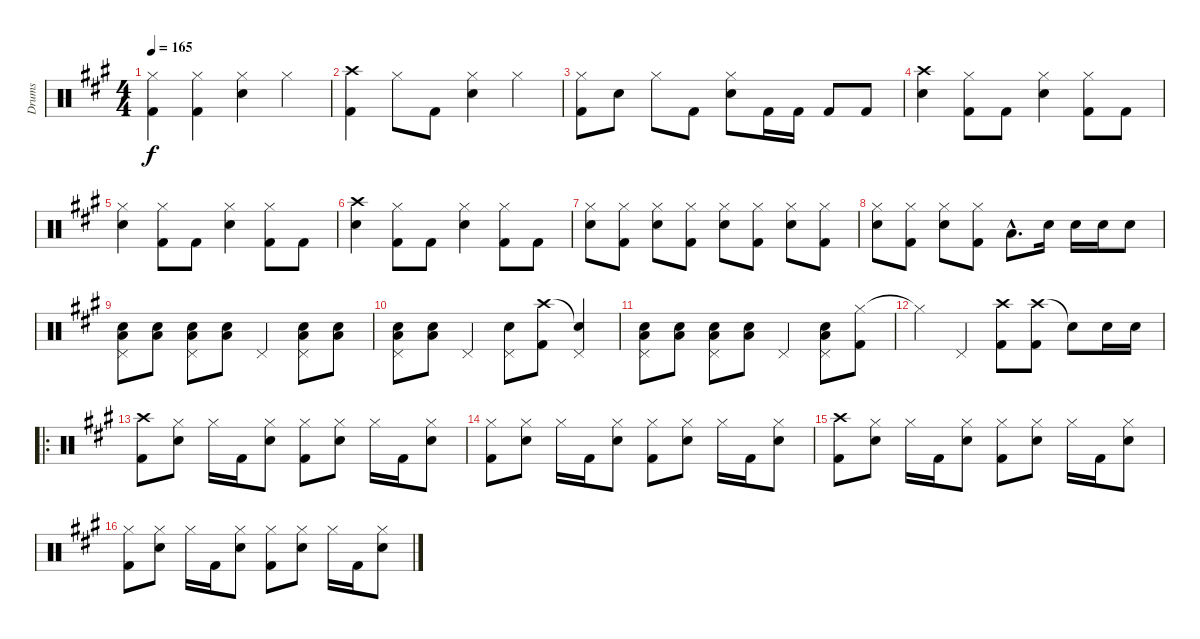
\track ("Drums" "Drums") {instrument percussion}
\staff {score}
\articulation defaults
\ts (4 4)
\tempo 165
\clef neutral
\ks a
("Hi-Hat (closed)" "Kick (hit) 2").4{dy f} ("Hi-Hat (closed)" "Kick (hit) 2").4 ("Hi-Hat (closed)" "Snare (hit) 2").4 "Hi-Hat (closed)".4 |
("Crash high (hit)" "Kick (hit) 2").4 "Hi-Hat (closed)".8 "Kick (hit) 2".8 ("Hi-Hat (closed)" "Snare (hit) 2").4 "Hi-Hat (closed)".4 |
("Hi-Hat (closed)" "Kick (hit) 2").8 "Snare (hit) 2".8 "Hi-Hat (closed)".8 "Kick (hit) 2".8 ("Hi-Hat (closed)" "Snare (hit) 2").8 "Kick (hit) 2".16 "Kick (hit) 2".16 "Kick (hit) 2".8 "Kick (hit) 2".8 |
("Crash high (hit)" "Snare (hit) 2").4 ("Hi-Hat (closed)" "Kick (hit) 2").8 "Kick (hit) 2".8 ("Hi-Hat (closed)" "Snare (hit) 2").4 ("Hi-Hat (closed)" "Kick (hit) 2").8 "Kick (hit) 2".8 |
("Hi-Hat (closed)" "Snare (hit) 2").4 ("Hi-Hat (closed)" "Kick (hit) 2").8 "Kick (hit) 2".8 ("Hi-Hat (closed)" "Snare (hit) 2").4 ("Hi-Hat (closed)" "Kick (hit) 2").8 "Kick (hit) 2".8 |
("Crash high (hit)" "Snare (hit) 2").4 ("Hi-Hat (closed)" "Kick (hit) 2").8 "Kick (hit) 2".8 ("Hi-Hat (closed)" "Snare (hit) 2").4 ("Hi-Hat (closed)" "Kick (hit) 2").8 "Kick (hit) 2".8 |
("Hi-Hat (closed)" "Snare (hit) 2").8 ("Hi-Hat (closed)" "Kick (hit) 2").8 ("Hi-Hat (closed)" "Snare (hit) 2").8 ("Hi-Hat (closed)" "Kick (hit) 2").8 ("Hi-Hat (closed)" "Snare (hit) 2").8 ("Hi-Hat (closed)" "Kick (hit) 2").8 ("Hi-Hat (closed)" "Snare (hit) 2").8 ("Hi-Hat (closed)" "Kick (hit) 2").8 |
("Hi-Hat (closed)" "Snare (hit) 2").8 ("Hi-Hat (closed)" "Kick (hit) 2").8 ("Hi-Hat (closed)" "Snare (hit) 2").8 ("Hi-Hat (closed)" "Kick (hit) 2").8 "Low Tom (hit)"{hac}.8{d} "Snare (hit) 2".16 "Snare (hit) 2".16 "Snare (hit) 2".16 "Snare (hit) 2".8 |
("Pedal Hi-Hat (hit)" "Snare (hit) 2" "Low Floor Tom (hit)").8 ("Snare (hit) 2" "Low Floor Tom (hit)").8 ("Pedal Hi-Hat (hit)" "Snare (hit) 2" "Low Floor Tom (hit)").8 ("Snare (hit) 2" "Low Floor Tom (hit)").8 "Pedal Hi-Hat (hit)".4 ("Pedal Hi-Hat (hit)" "Snare (hit) 2" "Low Floor Tom (hit)").8 ("Snare (hit) 2" "Low Floor Tom (hit)").8 |
("Pedal Hi-Hat (hit)" "Snare (hit) 2" "Low Floor Tom (hit)").8 ("Snare (hit) 2" "Low Floor Tom (hit)").8 "Pedal Hi-Hat (hit)".4 ("Pedal Hi-Hat (hit)" "Snare (hit) 2").8 ("Crash high (hit)" "Kick (hit) 2").8 ("Snare (hit)"{t} "Pedal Hi-Hat (hit)").4 |
("Pedal Hi-Hat (hit)" "Snare (hit) 2" "Low Floor Tom (hit)").8 ("Snare (hit) 2" "Low Floor Tom (hit)").8 ("Pedal Hi-Hat (hit)" "Snare (hit) 2" "Low Floor Tom (hit)").8 ("Snare (hit) 2" "Low Floor Tom (hit)").8 "Pedal Hi-Hat (hit)".4 ("Pedal Hi-Hat (hit)" "Snare (hit) 2" "Low Floor Tom (hit)").8 ("Hi-Hat (closed)" "Kick (hit) 2").8 |
"Hi-Hat (closed)"{t}.4 "Pedal Hi-Hat (hit)".4 ("Crash high (hit)" "Kick (hit) 2").8 ("Crash high (hit)" "Kick (hit) 2").8 "Snare (hit)"{t}.8 "Snare (hit) 2".16 "Snare (hit) 2".16 |
\ro
("Crash high (hit)" "Kick (hit) 2").8 ("Hi-Hat (closed)" "Snare (hit) 2").8 "Hi-Hat (closed)".16 "Kick (hit) 2".16 ("Hi-Hat (closed)" "Snare (hit) 2").8 ("Hi-Hat (closed)" "Kick (hit) 2").8 ("Hi-Hat (closed)" "Snare (hit) 2").8 "Hi-Hat (closed)".16 "Kick (hit) 2".16 ("Hi-Hat (closed)" "Snare (hit) 2").8 |
("Hi-Hat (closed)" "Kick (hit) 2").8 ("Hi-Hat (closed)" "Snare (hit) 2").8 "Hi-Hat (closed)".16 "Kick (hit) 2".16 ("Hi-Hat (closed)" "Snare (hit) 2").8 ("Hi-Hat (closed)" "Kick (hit) 2").8 ("Hi-Hat (closed)" "Snare (hit) 2").8 "Hi-Hat (closed)".16 "Kick (hit) 2".16 ("Hi-Hat (closed)" "Snare (hit) 2").8 |
("Crash high (hit)" "Kick (hit) 2").8 ("Hi-Hat (closed)" "Snare (hit) 2").8 "Hi-Hat (closed)".16 "Kick (hit) 2".16 ("Hi-Hat (closed)" "Snare (hit) 2").8 ("Hi-Hat (closed)" "Kick (hit) 2").8 ("Hi-Hat (closed)" "Snare (hit) 2").8 "Hi-Hat (closed)".16 "Kick (hit) 2".16 ("Hi-Hat (closed)" "Snare (hit) 2").8 |
("Hi-Hat (closed)" "Kick (hit) 2").8 ("Hi-Hat (closed)" "Snare (hit) 2").8 "Hi-Hat (closed)".16 "Kick (hit) 2".16 ("Hi-Hat (closed)" "Snare (hit) 2").8 ("Hi-Hat (closed)" "Kick (hit) 2").8 ("Hi-Hat (closed)" "Snare (hit) 2").8 "Hi-Hat (closed)".16 "Kick (hit) 2".16 ("Hi-Hat (closed)" "Snare (hit) 2").8
